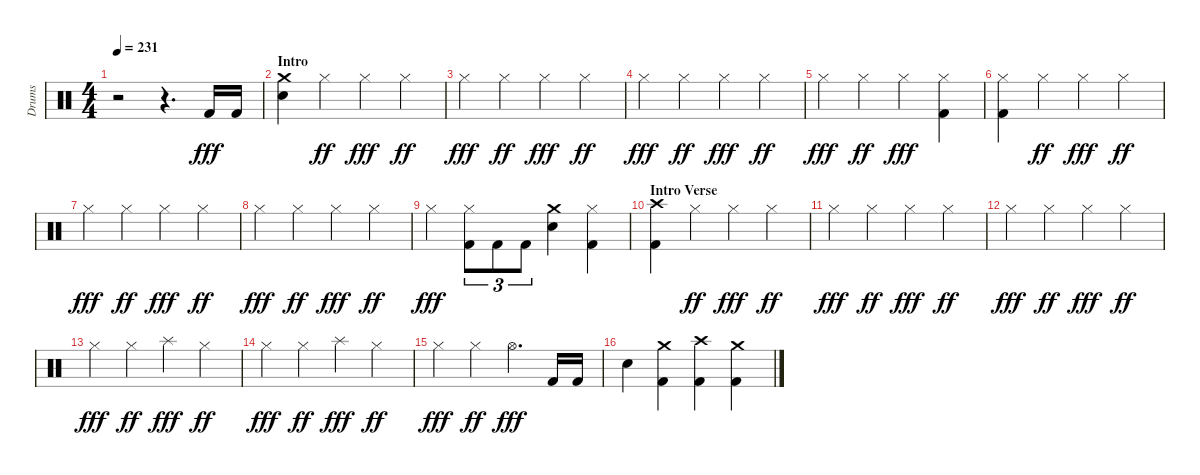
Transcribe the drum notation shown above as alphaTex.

\track ("Drums" "Drums") {instrument percussion}
\staff {score}
\articulation defaults
\ts (4 4)
\tempo 231
\clef neutral
\ks aminor
r.2{dy fff} r.4{d} "Kick (hit) 2".16 "Kick (hit) 2".16 |
\section ("" "Intro")
("Snare (hit) 2" "Crash medium (hit)").4 "Hi-Hat (closed)".4{dy ff} "Hi-Hat (closed)".4{dy fff} "Hi-Hat (closed)".4{dy ff} |
"Hi-Hat (closed)".4{dy fff} "Hi-Hat (closed)".4{dy ff} "Hi-Hat (closed)".4{dy fff} "Hi-Hat (closed)".4{dy ff} |
"Hi-Hat (closed)".4{dy fff} "Hi-Hat (closed)".4{dy ff} "Hi-Hat (closed)".4{dy fff} "Hi-Hat (closed)".4{dy ff} |
"Hi-Hat (closed)".4{dy fff} "Hi-Hat (closed)".4{dy ff} "Hi-Hat (closed)".4{dy fff} ("Kick (hit) 2" "Hi-Hat (closed)").4 |
("Kick (hit) 2" "Hi-Hat (closed)").4 "Hi-Hat (closed)".4{dy ff} "Hi-Hat (closed)".4{dy fff} "Hi-Hat (closed)".4{dy ff} |
"Hi-Hat (closed)".4{dy fff} "Hi-Hat (closed)".4{dy ff} "Hi-Hat (closed)".4{dy fff} "Hi-Hat (closed)".4{dy ff} |
"Hi-Hat (closed)".4{dy fff} "Hi-Hat (closed)".4{dy ff} "Hi-Hat (closed)".4{dy fff} "Hi-Hat (closed)".4{dy ff} |
"Hi-Hat (closed)".4{dy fff} ("Kick (hit) 2" "Hi-Hat (closed)").8{tu (3 2)} "Kick (hit) 2".8{tu (3 2)} "Kick (hit) 2".8{tu (3 2)} ("Snare (hit) 2" "Crash medium (hit)").4 ("Kick (hit) 2" "Hi-Hat (closed)").4 |
\section ("" "Intro Verse")
("Kick (hit) 2" "Crash high (hit)").4 "Hi-Hat (closed)".4{dy ff} "Hi-Hat (closed)".4{dy fff} "Hi-Hat (closed)".4{dy ff} |
"Hi-Hat (closed)".4{dy fff} "Hi-Hat (closed)".4{dy ff} "Hi-Hat (closed)".4{dy fff} "Hi-Hat (closed)".4{dy ff} |
"Hi-Hat (closed)".4{dy fff} "Hi-Hat (closed)".4{dy ff} "Hi-Hat (closed)".4{dy fff} "Hi-Hat (closed)".4{dy ff} |
"Hi-Hat (closed)".4{dy fff} "Hi-Hat (closed)".4{dy ff} "Splash (hit)".4{dy fff} "Hi-Hat (closed)".4{dy ff} |
"Hi-Hat (closed)".4{dy fff} "Hi-Hat (closed)".4{dy ff} "Splash (hit)".4{dy fff} "Hi-Hat (closed)".4{dy ff} |
"Hi-Hat (closed)".4{dy fff} "Hi-Hat (closed)".4{dy ff} "Hi-Hat (open)".4{d dy fff} "Kick (hit) 2".16 "Kick (hit) 2".16 |
"Snare (hit) 2".4 ("Kick (hit) 2" "Crash medium (hit)").4 ("Kick (hit) 2" "Crash high (hit)").4 ("Kick (hit) 2" "Crash medium (hit)").4
